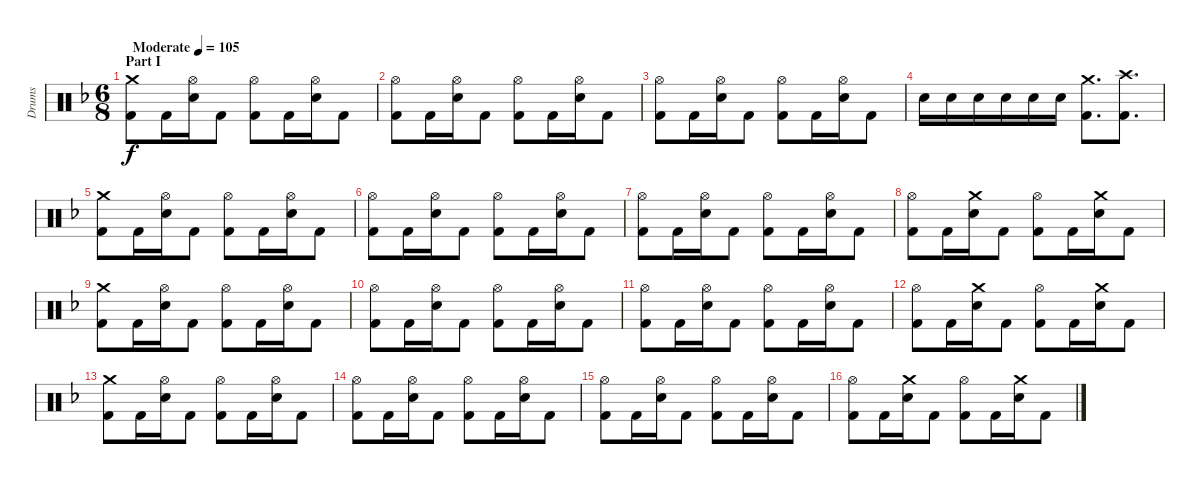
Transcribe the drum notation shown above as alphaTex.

\track ("Drums" "Drums") {instrument percussion}
\staff {score}
\articulation defaults
\ts (6 8)
\section ("" "Part I")
\tempo (105 "Moderate")
\clef neutral
\ks dminor
("Crash medium (hit)" "Kick (hit) 2").8{dy f} "Kick (hit) 2".16 ("Electric Snare (hit)" "Hi-Hat (open)").16 "Kick (hit) 2".8 ("Kick (hit) 2" "Hi-Hat (open)").8 "Kick (hit) 2".16 ("Electric Snare (hit)" "Hi-Hat (open)").16 "Kick (hit) 2".8 |
("Kick (hit) 2" "Hi-Hat (open)").8 "Kick (hit) 2".16 ("Electric Snare (hit)" "Hi-Hat (open)").16 "Kick (hit) 2".8 ("Kick (hit) 2" "Hi-Hat (open)").8 "Kick (hit) 2".16 ("Electric Snare (hit)" "Hi-Hat (open)").16 "Kick (hit) 2".8 |
("Kick (hit) 2" "Hi-Hat (open)").8 "Kick (hit) 2".16 ("Electric Snare (hit)" "Hi-Hat (open)").16 "Kick (hit) 2".8 ("Kick (hit) 2" "Hi-Hat (open)").8 "Kick (hit) 2".16 ("Electric Snare (hit)" "Hi-Hat (open)").16 "Kick (hit) 2".8 |
"Electric Snare (hit)".16 "Electric Snare (hit)".16 "Electric Snare (hit)".16 "Electric Snare (hit)".16 "Electric Snare (hit)".16 "Electric Snare (hit)".16 ("Kick (hit) 2" "Crash medium (hit)").8{d} ("Kick (hit) 2" "Crash high (hit)").8{d} |
("Crash medium (hit)" "Kick (hit) 2").8 "Kick (hit) 2".16 ("Electric Snare (hit)" "Hi-Hat (open)").16 "Kick (hit) 2".8 ("Kick (hit) 2" "Hi-Hat (open)").8 "Kick (hit) 2".16 ("Electric Snare (hit)" "Hi-Hat (open)").16 "Kick (hit) 2".8 |
("Kick (hit) 2" "Hi-Hat (open)").8 "Kick (hit) 2".16 ("Electric Snare (hit)" "Hi-Hat (open)").16 "Kick (hit) 2".8 ("Kick (hit) 2" "Hi-Hat (open)").8 "Kick (hit) 2".16 ("Electric Snare (hit)" "Hi-Hat (open)").16 "Kick (hit) 2".8 |
("Kick (hit) 2" "Hi-Hat (open)").8 "Kick (hit) 2".16 ("Electric Snare (hit)" "Hi-Hat (open)").16 "Kick (hit) 2".8 ("Kick (hit) 2" "Hi-Hat (open)").8 "Kick (hit) 2".16 ("Electric Snare (hit)" "Hi-Hat (open)").16 "Kick (hit) 2".8 |
("Kick (hit) 2" "Hi-Hat (open)").8 "Kick (hit) 2".16 ("Electric Snare (hit)" "Crash medium (hit)").16 "Kick (hit) 2".8 ("Kick (hit) 2" "Hi-Hat (open)").8 "Kick (hit) 2".16 ("Electric Snare (hit)" "Crash medium (hit)").16 "Kick (hit) 2".8 |
("Crash medium (hit)" "Kick (hit) 2").8 "Kick (hit) 2".16 ("Electric Snare (hit)" "Hi-Hat (open)").16 "Kick (hit) 2".8 ("Kick (hit) 2" "Hi-Hat (open)").8 "Kick (hit) 2".16 ("Electric Snare (hit)" "Hi-Hat (open)").16 "Kick (hit) 2".8 |
("Kick (hit) 2" "Hi-Hat (open)").8 "Kick (hit) 2".16 ("Electric Snare (hit)" "Hi-Hat (open)").16 "Kick (hit) 2".8 ("Kick (hit) 2" "Hi-Hat (open)").8 "Kick (hit) 2".16 ("Electric Snare (hit)" "Hi-Hat (open)").16 "Kick (hit) 2".8 |
("Kick (hit) 2" "Hi-Hat (open)").8 "Kick (hit) 2".16 ("Electric Snare (hit)" "Hi-Hat (open)").16 "Kick (hit) 2".8 ("Kick (hit) 2" "Hi-Hat (open)").8 "Kick (hit) 2".16 ("Electric Snare (hit)" "Hi-Hat (open)").16 "Kick (hit) 2".8 |
("Kick (hit) 2" "Hi-Hat (open)").8 "Kick (hit) 2".16 ("Electric Snare (hit)" "Crash medium (hit)").16 "Kick (hit) 2".8 ("Kick (hit) 2" "Hi-Hat (open)").8 "Kick (hit) 2".16 ("Electric Snare (hit)" "Crash medium (hit)").16 "Kick (hit) 2".8 |
("Crash medium (hit)" "Kick (hit) 2").8 "Kick (hit) 2".16 ("Electric Snare (hit)" "Hi-Hat (open)").16 "Kick (hit) 2".8 ("Kick (hit) 2" "Hi-Hat (open)").8 "Kick (hit) 2".16 ("Electric Snare (hit)" "Hi-Hat (open)").16 "Kick (hit) 2".8 |
("Kick (hit) 2" "Hi-Hat (open)").8 "Kick (hit) 2".16 ("Electric Snare (hit)" "Hi-Hat (open)").16 "Kick (hit) 2".8 ("Kick (hit) 2" "Hi-Hat (open)").8 "Kick (hit) 2".16 ("Electric Snare (hit)" "Hi-Hat (open)").16 "Kick (hit) 2".8 |
("Kick (hit) 2" "Hi-Hat (open)").8 "Kick (hit) 2".16 ("Electric Snare (hit)" "Hi-Hat (open)").16 "Kick (hit) 2".8 ("Kick (hit) 2" "Hi-Hat (open)").8 "Kick (hit) 2".16 ("Electric Snare (hit)" "Hi-Hat (open)").16 "Kick (hit) 2".8 |
("Kick (hit) 2" "Hi-Hat (open)").8 "Kick (hit) 2".16 ("Electric Snare (hit)" "Crash medium (hit)").16 "Kick (hit) 2".8 ("Kick (hit) 2" "Hi-Hat (open)").8 "Kick (hit) 2".16 ("Electric Snare (hit)" "Crash medium (hit)").16 "Kick (hit) 2".8
